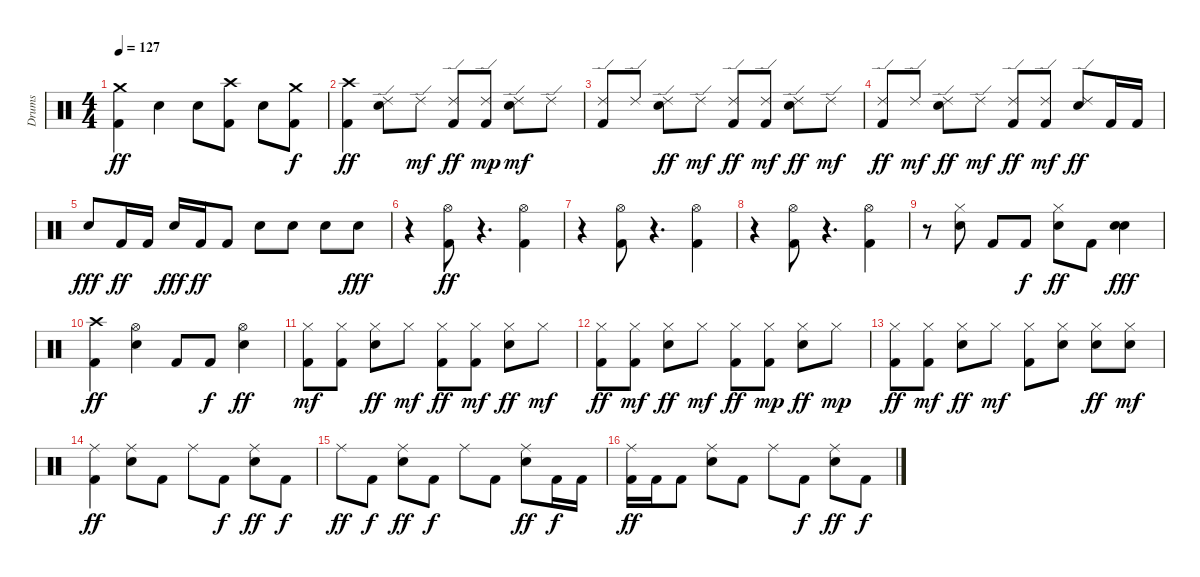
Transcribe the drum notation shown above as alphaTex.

\track ("Drums" "Drums") {instrument percussion}
\staff {score}
\articulation defaults
\ts (4 4)
\tempo 127
\clef neutral
\ks c
("Kick (hit) 2" "Crash medium (hit)").4{dy ff} "Electric Snare (hit)".4 "Electric Snare (hit)".8 ("Kick (hit) 2" "Crash high (hit)").8 "Electric Snare (hit)".8 ("Kick (hit) 2" "Crash medium (hit)").8{dy f} |
("Kick (hit) 2" "Crash high (hit)").4{dy ff} ("Ride (edge) 2" "Electric Snare (hit)").8 "Ride (edge) 2".8{dy mf} ("Kick (hit) 2" "Ride (edge) 2").8{dy ff} ("Kick (hit) 2" "Ride (edge) 2").8{dy mp} ("Electric Snare (hit)" "Ride (edge) 2").8{dy mf} "Ride (edge) 2".8 |
("Kick (hit) 2" "Ride (edge) 2").8 "Ride (edge) 2".8 ("Ride (edge) 2" "Electric Snare (hit)").8{dy ff} "Ride (edge) 2".8{dy mf} ("Kick (hit) 2" "Ride (edge) 2").8{dy ff} ("Kick (hit) 2" "Ride (edge) 2").8{dy mf} ("Ride (edge) 2" "Electric Snare (hit)").8{dy ff} "Ride (edge) 2".8{dy mf} |
("Kick (hit) 2" "Ride (edge) 2").8{dy ff} "Ride (edge) 2".8{dy mf} ("Ride (edge) 2" "Electric Snare (hit)").8{dy ff} "Ride (edge) 2".8{dy mf} ("Kick (hit) 2" "Ride (edge) 2").8{dy ff} ("Kick (hit) 2" "Ride (edge) 2").8{dy mf} ("Electric Snare (hit)" "Ride (edge) 2").8{dy ff} "Kick (hit) 2".16 "Kick (hit) 2".16 |
"Electric Snare (hit)".8{dy fff} "Kick (hit) 2".16{dy ff} "Kick (hit) 2".16 "Electric Snare (hit)".16{dy fff} "Kick (hit) 2".16{dy ff} "Kick (hit) 2".8 "Electric Snare (hit)".8 "Electric Snare (hit)".8 "Electric Snare (hit)".8 "Electric Snare (hit)".8{dy fff} |
r.4 ("Hi-Hat (open)" "Kick (hit) 2").8{dy ff} r.4{d} ("Kick (hit) 2" "Hi-Hat (open)").4 |
r.4 ("Hi-Hat (open)" "Kick (hit) 2").8 r.4{d} ("Hi-Hat (open)" "Kick (hit) 2").4 |
r.4 ("Kick (hit) 2" "Hi-Hat (open)").8 r.4{d} ("Kick (hit) 2" "Hi-Hat (open)").4 |
r.8 ("Electric Snare (hit)" "Hi-Hat (closed)").8 "Kick (hit) 2".8 "Kick (hit) 2".8{dy f} ("Electric Snare (hit)" "Hi-Hat (closed)").8{dy ff} "Kick (hit) 2".8 ("Electric Snare (hit)" "Electric Snare (hit)").4{dy fff} |
("Kick (hit) 2" "Crash high (hit)").4{dy ff} ("Electric Snare (hit)" "Hi-Hat (open)").4 "Kick (hit) 2".8 "Kick (hit) 2".8{dy f} ("Electric Snare (hit)" "Hi-Hat (open)").4{dy ff} |
("Kick (hit) 2" "Hi-Hat (closed)").8{dy mf} ("Kick (hit) 2" "Hi-Hat (closed)").8 ("Electric Snare (hit)" "Hi-Hat (closed)").8{dy ff} "Hi-Hat (closed)".8{dy mf} ("Kick (hit) 2" "Hi-Hat (closed)").8{dy ff} ("Kick (hit) 2" "Hi-Hat (closed)").8{dy mf} ("Electric Snare (hit)" "Hi-Hat (closed)").8{dy ff} "Hi-Hat (closed)".8{dy mf} |
("Kick (hit) 2" "Hi-Hat (closed)").8{dy ff} ("Kick (hit) 2" "Hi-Hat (closed)").8{dy mf} ("Electric Snare (hit)" "Hi-Hat (closed)").8{dy ff} "Hi-Hat (closed)".8{dy mf} ("Kick (hit) 2" "Hi-Hat (closed)").8{dy ff} ("Kick (hit) 2" "Hi-Hat (closed)").8{dy mp} ("Electric Snare (hit)" "Hi-Hat (closed)").8{dy ff} "Hi-Hat (closed)".8{dy mp} |
("Kick (hit) 2" "Hi-Hat (closed)").8{dy ff} ("Kick (hit) 2" "Hi-Hat (closed)").8{dy mf} ("Electric Snare (hit)" "Hi-Hat (closed)").8{dy ff} "Hi-Hat (closed)".8{dy mf} ("Kick (hit) 2" "Hi-Hat (closed)").8 ("Electric Snare (hit)" "Hi-Hat (closed)").8 ("Hi-Hat (closed)" "Electric Snare (hit)").8{dy ff} ("Electric Snare (hit)" "Hi-Hat (closed)").8{dy mf} |
("Ride (middle)" "Kick (hit) 2").4{dy ff} ("Electric Snare (hit)" "Ride (middle)").8 "Kick (hit) 2".8 "Ride (middle)".8 "Kick (hit) 2".8{dy f} ("Electric Snare (hit)" "Ride (middle)").8{dy ff} "Kick (hit) 2".8{dy f} |
"Ride (middle)".8{dy ff} "Kick (hit) 2".8{dy f} ("Ride (middle)" "Electric Snare (hit)").8{dy ff} "Kick (hit) 2".8{dy f} "Ride (middle)".8 "Kick (hit) 2".8 ("Electric Snare (hit)" "Ride (middle)").8{dy ff} "Kick (hit) 2".16{dy f} "Kick (hit) 2".16 |
("Kick (hit) 2" "Ride (middle)").16{dy ff} "Kick (hit) 2".16 "Kick (hit) 2".8 ("Ride (middle)" "Electric Snare (hit)").8 "Kick (hit) 2".8 "Ride (middle)".8 "Kick (hit) 2".8{dy f} ("Electric Snare (hit)" "Ride (middle)").8{dy ff} "Kick (hit) 2".8{dy f}
